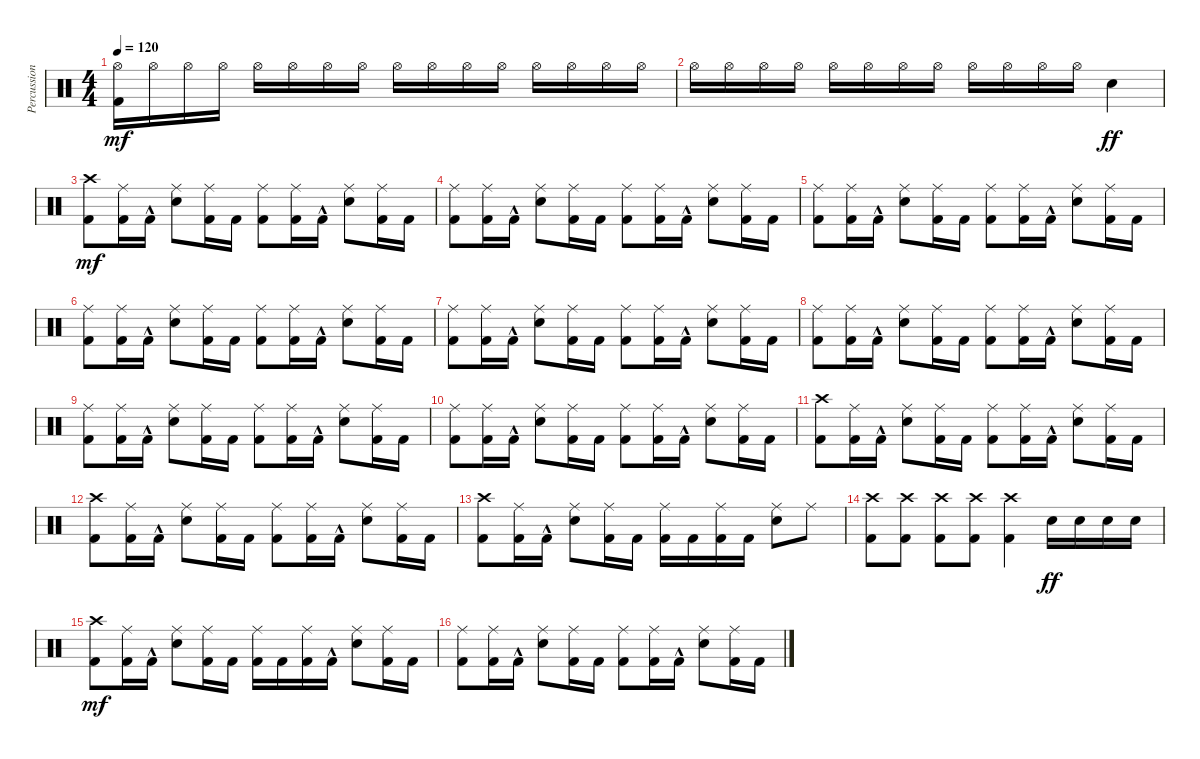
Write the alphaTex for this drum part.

\track ("Percussioni" "Percussion") {instrument percussion}
\staff {score}
\articulation defaults
\ts (4 4)
\tempo 120
\clef neutral
\ks c
("Kick (hit) 2" "Hi-Hat (open)").16{dy mf} "Hi-Hat (open)".16 "Hi-Hat (open)".16 "Hi-Hat (open)".16 "Hi-Hat (open)".16 "Hi-Hat (open)".16 "Hi-Hat (open)".16 "Hi-Hat (open)".16 "Hi-Hat (open)".16 "Hi-Hat (open)".16 "Hi-Hat (open)".16 "Hi-Hat (open)".16 "Hi-Hat (open)".16 "Hi-Hat (open)".16 "Hi-Hat (open)".16 "Hi-Hat (open)".16 |
"Hi-Hat (open)".16 "Hi-Hat (open)".16 "Hi-Hat (open)".16 "Hi-Hat (open)".16 "Hi-Hat (open)".16 "Hi-Hat (open)".16 "Hi-Hat (open)".16 "Hi-Hat (open)".16 "Hi-Hat (open)".16 "Hi-Hat (open)".16 "Hi-Hat (open)".16 "Hi-Hat (open)".16 "Snare (hit) 2".4{dy ff} |
("Kick (hit) 2" "Crash high (hit)").8{dy mf} ("Kick (hit) 2" "Ride (middle)").16 "Kick (hit) 2"{hac}.16 ("Snare (hit) 2" "Ride (middle)").8 ("Kick (hit) 2" "Ride (middle)").16 "Kick (hit) 2".16 ("Kick (hit) 2" "Ride (middle)").8 ("Kick (hit) 2" "Ride (middle)").16 "Kick (hit) 2"{hac}.16 ("Snare (hit) 2" "Ride (middle)").8 ("Kick (hit) 2" "Ride (middle)").16 "Kick (hit) 2".16 |
("Kick (hit) 2" "Ride (middle)").8 ("Kick (hit) 2" "Ride (middle)").16 "Kick (hit) 2"{hac}.16 ("Snare (hit) 2" "Ride (middle)").8 ("Kick (hit) 2" "Ride (middle)").16 "Kick (hit) 2".16 ("Kick (hit) 2" "Ride (middle)").8 ("Kick (hit) 2" "Ride (middle)").16 "Kick (hit) 2"{hac}.16 ("Snare (hit) 2" "Ride (middle)").8 ("Kick (hit) 2" "Ride (middle)").16 "Kick (hit) 2".16 |
("Kick (hit) 2" "Ride (middle)").8 ("Kick (hit) 2" "Ride (middle)").16 "Kick (hit) 2"{hac}.16 ("Snare (hit) 2" "Ride (middle)").8 ("Kick (hit) 2" "Ride (middle)").16 "Kick (hit) 2".16 ("Kick (hit) 2" "Ride (middle)").8 ("Kick (hit) 2" "Ride (middle)").16 "Kick (hit) 2"{hac}.16 ("Snare (hit) 2" "Ride (middle)").8 ("Kick (hit) 2" "Ride (middle)").16 "Kick (hit) 2".16 |
("Kick (hit) 2" "Ride (middle)").8 ("Kick (hit) 2" "Ride (middle)").16 "Kick (hit) 2"{hac}.16 ("Snare (hit) 2" "Ride (middle)").8 ("Kick (hit) 2" "Ride (middle)").16 "Kick (hit) 2".16 ("Kick (hit) 2" "Ride (middle)").8 ("Kick (hit) 2" "Ride (middle)").16 "Kick (hit) 2"{hac}.16 ("Snare (hit) 2" "Ride (middle)").8 ("Kick (hit) 2" "Ride (middle)").16 "Kick (hit) 2".16 |
("Kick (hit) 2" "Ride (middle)").8 ("Kick (hit) 2" "Ride (middle)").16 "Kick (hit) 2"{hac}.16 ("Snare (hit) 2" "Ride (middle)").8 ("Kick (hit) 2" "Ride (middle)").16 "Kick (hit) 2".16 ("Kick (hit) 2" "Ride (middle)").8 ("Kick (hit) 2" "Ride (middle)").16 "Kick (hit) 2"{hac}.16 ("Snare (hit) 2" "Ride (middle)").8 ("Kick (hit) 2" "Ride (middle)").16 "Kick (hit) 2".16 |
("Kick (hit) 2" "Ride (middle)").8 ("Kick (hit) 2" "Ride (middle)").16 "Kick (hit) 2"{hac}.16 ("Snare (hit) 2" "Ride (middle)").8 ("Kick (hit) 2" "Ride (middle)").16 "Kick (hit) 2".16 ("Kick (hit) 2" "Ride (middle)").8 ("Kick (hit) 2" "Ride (middle)").16 "Kick (hit) 2"{hac}.16 ("Snare (hit) 2" "Ride (middle)").8 ("Kick (hit) 2" "Ride (middle)").16 "Kick (hit) 2".16 |
("Kick (hit) 2" "Ride (middle)").8 ("Kick (hit) 2" "Ride (middle)").16 "Kick (hit) 2"{hac}.16 ("Snare (hit) 2" "Ride (middle)").8 ("Kick (hit) 2" "Ride (middle)").16 "Kick (hit) 2".16 ("Kick (hit) 2" "Ride (middle)").8 ("Kick (hit) 2" "Ride (middle)").16 "Kick (hit) 2"{hac}.16 ("Snare (hit) 2" "Ride (middle)").8 ("Kick (hit) 2" "Ride (middle)").16 "Kick (hit) 2".16 |
("Kick (hit) 2" "Ride (middle)").8 ("Kick (hit) 2" "Ride (middle)").16 "Kick (hit) 2"{hac}.16 ("Snare (hit) 2" "Ride (middle)").8 ("Kick (hit) 2" "Ride (middle)").16 "Kick (hit) 2".16 ("Kick (hit) 2" "Ride (middle)").8 ("Kick (hit) 2" "Ride (middle)").16 "Kick (hit) 2"{hac}.16 ("Snare (hit) 2" "Ride (middle)").8 ("Kick (hit) 2" "Ride (middle)").16 "Kick (hit) 2".16 |
("Kick (hit) 2" "Crash high (hit)").8 ("Kick (hit) 2" "Ride (middle)").16 "Kick (hit) 2"{hac}.16 ("Snare (hit) 2" "Ride (middle)").8 ("Kick (hit) 2" "Ride (middle)").16 "Kick (hit) 2".16 ("Kick (hit) 2" "Ride (middle)").8 ("Kick (hit) 2" "Ride (middle)").16 "Kick (hit) 2"{hac}.16 ("Snare (hit) 2" "Ride (middle)").8 ("Kick (hit) 2" "Ride (middle)").16 "Kick (hit) 2".16 |
("Kick (hit) 2" "Crash high (hit)").8 ("Kick (hit) 2" "Ride (middle)").16 "Kick (hit) 2"{hac}.16 ("Snare (hit) 2" "Ride (middle)").8 ("Kick (hit) 2" "Ride (middle)").16 "Kick (hit) 2".16 ("Kick (hit) 2" "Ride (middle)").8 ("Kick (hit) 2" "Ride (middle)").16 "Kick (hit) 2"{hac}.16 ("Snare (hit) 2" "Ride (middle)").8 ("Kick (hit) 2" "Ride (middle)").16 "Kick (hit) 2".16 |
("Kick (hit) 2" "Crash high (hit)").8 ("Kick (hit) 2" "Ride (middle)").16 "Kick (hit) 2"{hac}.16 ("Snare (hit) 2" "Ride (middle)").8 ("Kick (hit) 2" "Ride (middle)").16 "Kick (hit) 2".16 ("Kick (hit) 2" "Ride (middle)").16 "Kick (hit) 2".16 ("Kick (hit) 2" "Ride (middle)").16 "Kick (hit) 2".16 ("Snare (hit) 2" "Ride (middle)").8 "Ride (middle)".8 |
("Kick (hit) 2" "Crash high (hit)").8 ("Kick (hit) 2" "Crash high (hit)").8 ("Kick (hit) 2" "Crash high (hit)").8 ("Kick (hit) 2" "Crash high (hit)").8 ("Kick (hit) 2" "Crash high (hit)").4 "Snare (hit) 2".16{dy ff} "Snare (hit) 2".16 "Snare (hit) 2".16 "Snare (hit) 2".16 |
("Kick (hit) 2" "Crash high (hit)").8{dy mf} ("Kick (hit) 2" "Ride (middle)").16 "Kick (hit) 2"{hac}.16 ("Snare (hit) 2" "Ride (middle)").8 ("Kick (hit) 2" "Ride (middle)").16 "Kick (hit) 2".16 ("Kick (hit) 2" "Ride (middle)").16 "Kick (hit) 2".16 ("Kick (hit) 2" "Ride (middle)").16 "Kick (hit) 2"{hac}.16 ("Snare (hit) 2" "Ride (middle)").8 ("Kick (hit) 2" "Ride (middle)").16 "Kick (hit) 2".16 |
("Kick (hit) 2" "Ride (middle)").8 ("Kick (hit) 2" "Ride (middle)").16 "Kick (hit) 2"{hac}.16 ("Snare (hit) 2" "Ride (middle)").8 ("Kick (hit) 2" "Ride (middle)").16 "Kick (hit) 2".16 ("Kick (hit) 2" "Ride (middle)").8 ("Kick (hit) 2" "Ride (middle)").16 "Kick (hit) 2"{hac}.16 ("Snare (hit) 2" "Ride (middle)").8 ("Kick (hit) 2" "Ride (middle)").16 "Kick (hit) 2".16
